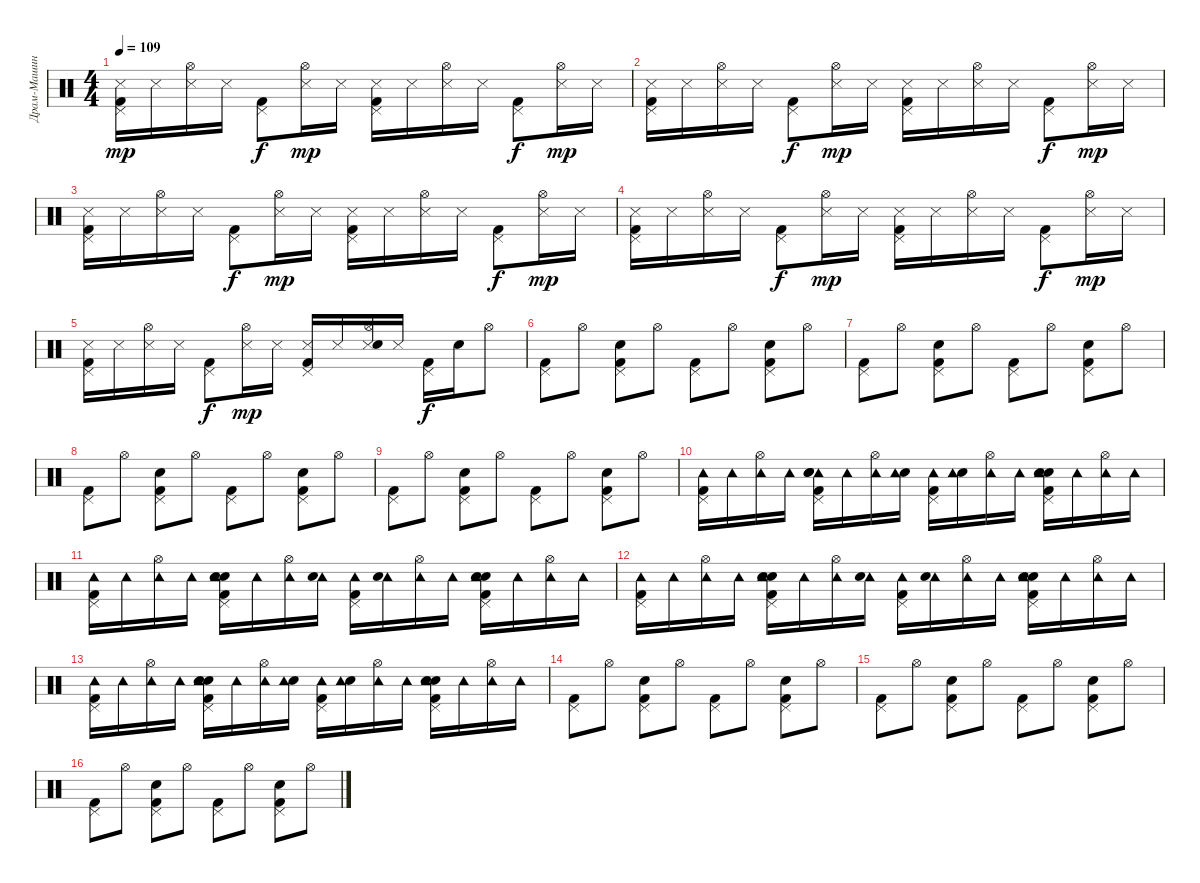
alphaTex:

\track ("Драм-Машина" "Драм-Машин") {instrument percussion}
\staff {score}
\articulation defaults
\ts (4 4)
\tempo 109
\clef neutral
\ks c
("Snare (side stick) 3" "Pedal Hi-Hat (hit)" "Kick (hit) 2").16{dy mp} "Snare (side stick) 3".16 ("Hi-Hat (open)" "Snare (side stick) 3").16 "Snare (side stick) 3".16 ("Pedal Hi-Hat (hit)" "Kick (hit) 2").8{dy f} ("Snare (side stick) 3" "Hi-Hat (open)").16{dy mp} "Snare (side stick) 3".16 ("Pedal Hi-Hat (hit)" "Kick (hit) 2" "Snare (side stick) 3").16 "Snare (side stick) 3".16 ("Hi-Hat (open)" "Snare (side stick) 3").16 "Snare (side stick) 3".16 ("Pedal Hi-Hat (hit)" "Kick (hit) 2").8{dy f} ("Snare (side stick) 3" "Hi-Hat (open)").16{dy mp} "Snare (side stick) 3".16 |
("Pedal Hi-Hat (hit)" "Kick (hit) 2" "Snare (side stick) 3").16 "Snare (side stick) 3".16 ("Snare (side stick) 3" "Hi-Hat (open)").16 "Snare (side stick) 3".16 ("Kick (hit) 2" "Pedal Hi-Hat (hit)").8{dy f} ("Snare (side stick) 3" "Hi-Hat (open)").16{dy mp} "Snare (side stick) 3".16 ("Pedal Hi-Hat (hit)" "Snare (side stick) 3" "Kick (hit) 2").16 "Snare (side stick) 3".16 ("Snare (side stick) 3" "Hi-Hat (open)").16 "Snare (side stick) 3".16 ("Pedal Hi-Hat (hit)" "Kick (hit) 2").8{dy f} ("Hi-Hat (open)" "Snare (side stick) 3").16{dy mp} "Snare (side stick) 3".16 |
("Kick (hit) 2" "Pedal Hi-Hat (hit)" "Snare (side stick) 3").16 "Snare (side stick) 3".16 ("Hi-Hat (open)" "Snare (side stick) 3").16 "Snare (side stick) 3".16 ("Kick (hit) 2" "Pedal Hi-Hat (hit)").8{dy f} ("Hi-Hat (open)" "Snare (side stick) 3").16{dy mp} "Snare (side stick) 3".16 ("Pedal Hi-Hat (hit)" "Snare (side stick) 3" "Kick (hit) 2").16 "Snare (side stick) 3".16 ("Snare (side stick) 3" "Hi-Hat (open)").16 "Snare (side stick) 3".16 ("Kick (hit) 2" "Pedal Hi-Hat (hit)").8{dy f} ("Snare (side stick) 3" "Hi-Hat (open)").16{dy mp} "Snare (side stick) 3".16 |
("Pedal Hi-Hat (hit)" "Kick (hit) 2" "Snare (side stick) 3").16 "Snare (side stick) 3".16 ("Snare (side stick) 3" "Hi-Hat (open)").16 "Snare (side stick) 3".16 ("Pedal Hi-Hat (hit)" "Kick (hit) 2").8{dy f} ("Hi-Hat (open)" "Snare (side stick) 3").16{dy mp} "Snare (side stick) 3".16 ("Kick (hit) 2" "Pedal Hi-Hat (hit)" "Snare (side stick) 3").16 "Snare (side stick) 3".16 ("Hi-Hat (open)" "Snare (side stick) 3").16 "Snare (side stick) 3".16 ("Kick (hit) 2" "Pedal Hi-Hat (hit)").8{dy f} ("Hi-Hat (open)" "Snare (side stick) 3").16{dy mp} "Snare (side stick) 3".16 |
("Snare (side stick) 3" "Pedal Hi-Hat (hit)" "Kick (hit) 2").16 "Snare (side stick) 3".16 ("Hi-Hat (open)" "Snare (side stick) 3").16 "Snare (side stick) 3".16 ("Pedal Hi-Hat (hit)" "Kick (hit) 2").8{dy f} ("Snare (side stick) 3" "Hi-Hat (open)").16{dy mp} "Snare (side stick) 3".16 ("Kick (hit) 2" "Pedal Hi-Hat (hit)" "Snare (side stick) 3").16 "Snare (side stick) 3".16 ("Snare (side stick) 3" "Snare (hit) 2" "Hi-Hat (open)").16 "Snare (side stick) 3".16 ("Kick (hit) 2" "Pedal Hi-Hat (hit)").16{dy f} "Snare (hit) 2".16 "Hi-Hat (open)".8 |
("Kick (hit) 2" "Pedal Hi-Hat (hit)").8 "Hi-Hat (open)".8 ("Snare (hit) 2" "Pedal Hi-Hat (hit)" "Kick (hit) 2").8 "Hi-Hat (open)".8 ("Kick (hit) 2" "Pedal Hi-Hat (hit)").8 "Hi-Hat (open)".8 ("Kick (hit) 2" "Pedal Hi-Hat (hit)" "Snare (hit) 2").8 "Hi-Hat (open)".8 |
("Kick (hit) 2" "Pedal Hi-Hat (hit)").8 "Hi-Hat (open)".8 ("Kick (hit) 2" "Snare (hit) 2" "Pedal Hi-Hat (hit)").8 "Hi-Hat (open)".8 ("Kick (hit) 2" "Pedal Hi-Hat (hit)").8 "Hi-Hat (open)".8 ("Kick (hit) 2" "Pedal Hi-Hat (hit)" "Snare (hit) 2").8 "Hi-Hat (open)".8 |
("Pedal Hi-Hat (hit)" "Kick (hit) 2").8 "Hi-Hat (open)".8 ("Snare (hit) 2" "Kick (hit) 2" "Pedal Hi-Hat (hit)").8 "Hi-Hat (open)".8 ("Kick (hit) 2" "Pedal Hi-Hat (hit)").8 "Hi-Hat (open)".8 ("Snare (hit) 2" "Pedal Hi-Hat (hit)" "Kick (hit) 2").8 "Hi-Hat (open)".8 |
("Kick (hit) 2" "Pedal Hi-Hat (hit)").8 "Hi-Hat (open)".8 ("Kick (hit) 2" "Pedal Hi-Hat (hit)" "Snare (hit) 2").8 "Hi-Hat (open)".8 ("Kick (hit) 2" "Pedal Hi-Hat (hit)").8 "Hi-Hat (open)".8 ("Snare (hit) 2" "Kick (hit) 2" "Pedal Hi-Hat (hit)").8 "Hi-Hat (open)".8 |
("Kick (hit) 2" "Pedal Hi-Hat (hit)" "Tambourine (hit)").16 "Tambourine (hit)".16 ("Tambourine (hit)" "Hi-Hat (open)").16 "Tambourine (hit)".16 ("Tambourine (hit)" "Pedal Hi-Hat (hit)" "Kick (hit) 2" "Snare (hit) 2" "Electric Snare (hit)").16 "Tambourine (hit)".16 ("Tambourine (hit)" "Hi-Hat (open)").16 ("Electric Snare (hit)" "Tambourine (hit)").16 ("Kick (hit) 2" "Tambourine (hit)" "Pedal Hi-Hat (hit)").16 ("Electric Snare (hit)" "Tambourine (hit)").16 ("Hi-Hat (open)" "Tambourine (hit)").16 "Tambourine (hit)".16 ("Electric Snare (hit)" "Kick (hit) 2" "Tambourine (hit)" "Snare (hit) 2" "Pedal Hi-Hat (hit)").16 "Tambourine (hit)".16 ("Hi-Hat (open)" "Tambourine (hit)").16 "Tambourine (hit)".16 |
("Tambourine (hit)" "Kick (hit) 2" "Pedal Hi-Hat (hit)").16 "Tambourine (hit)".16 ("Tambourine (hit)" "Hi-Hat (open)").16 "Tambourine (hit)".16 ("Kick (hit) 2" "Snare (hit) 2" "Pedal Hi-Hat (hit)" "Electric Snare (hit)" "Tambourine (hit)").16 "Tambourine (hit)".16 ("Hi-Hat (open)" "Tambourine (hit)").16 ("Tambourine (hit)" "Electric Snare (hit)").16 ("Pedal Hi-Hat (hit)" "Tambourine (hit)" "Kick (hit) 2").16 ("Tambourine (hit)" "Electric Snare (hit)").16 ("Tambourine (hit)" "Hi-Hat (open)").16 "Tambourine (hit)".16 ("Pedal Hi-Hat (hit)" "Electric Snare (hit)" "Kick (hit) 2" "Tambourine (hit)" "Snare (hit) 2").16 "Tambourine (hit)".16 ("Hi-Hat (open)" "Tambourine (hit)").16 "Tambourine (hit)".16 |
("Tambourine (hit)" "Pedal Hi-Hat (hit)" "Kick (hit) 2").16 "Tambourine (hit)".16 ("Tambourine (hit)" "Hi-Hat (open)").16 "Tambourine (hit)".16 ("Snare (hit) 2" "Tambourine (hit)" "Pedal Hi-Hat (hit)" "Electric Snare (hit)" "Kick (hit) 2").16 "Tambourine (hit)".16 ("Tambourine (hit)" "Hi-Hat (open)").16 ("Tambourine (hit)" "Electric Snare (hit)").16 ("Kick (hit) 2" "Pedal Hi-Hat (hit)" "Tambourine (hit)").16 ("Tambourine (hit)" "Electric Snare (hit)").16 ("Hi-Hat (open)" "Tambourine (hit)").16 "Tambourine (hit)".16 ("Snare (hit) 2" "Tambourine (hit)" "Kick (hit) 2" "Electric Snare (hit)" "Pedal Hi-Hat (hit)").16 "Tambourine (hit)".16 ("Tambourine (hit)" "Hi-Hat (open)").16 "Tambourine (hit)".16 |
("Tambourine (hit)" "Kick (hit) 2" "Pedal Hi-Hat (hit)").16 "Tambourine (hit)".16 ("Hi-Hat (open)" "Tambourine (hit)").16 "Tambourine (hit)".16 ("Electric Snare (hit)" "Pedal Hi-Hat (hit)" "Tambourine (hit)" "Kick (hit) 2" "Snare (hit) 2").16 "Tambourine (hit)".16 ("Hi-Hat (open)" "Tambourine (hit)").16 ("Electric Snare (hit)" "Tambourine (hit)").16 ("Tambourine (hit)" "Kick (hit) 2" "Pedal Hi-Hat (hit)").16 ("Electric Snare (hit)" "Tambourine (hit)").16 ("Tambourine (hit)" "Hi-Hat (open)").16 "Tambourine (hit)".16 ("Snare (hit) 2" "Electric Snare (hit)" "Kick (hit) 2" "Tambourine (hit)" "Pedal Hi-Hat (hit)").16 "Tambourine (hit)".16 ("Tambourine (hit)" "Hi-Hat (open)").16 "Tambourine (hit)".16 |
("Kick (hit) 2" "Pedal Hi-Hat (hit)").8 "Hi-Hat (open)".8 ("Pedal Hi-Hat (hit)" "Kick (hit) 2" "Snare (hit) 2").8 "Hi-Hat (open)".8 ("Pedal Hi-Hat (hit)" "Kick (hit) 2").8 "Hi-Hat (open)".8 ("Pedal Hi-Hat (hit)" "Kick (hit) 2" "Snare (hit) 2").8 "Hi-Hat (open)".8 |
("Kick (hit) 2" "Pedal Hi-Hat (hit)").8 "Hi-Hat (open)".8 ("Pedal Hi-Hat (hit)" "Snare (hit) 2" "Kick (hit) 2").8 "Hi-Hat (open)".8 ("Pedal Hi-Hat (hit)" "Kick (hit) 2").8 "Hi-Hat (open)".8 ("Snare (hit) 2" "Kick (hit) 2" "Pedal Hi-Hat (hit)").8 "Hi-Hat (open)".8 |
("Kick (hit) 2" "Pedal Hi-Hat (hit)").8 "Hi-Hat (open)".8 ("Kick (hit) 2" "Snare (hit) 2" "Pedal Hi-Hat (hit)").8 "Hi-Hat (open)".8 ("Kick (hit) 2" "Pedal Hi-Hat (hit)").8 "Hi-Hat (open)".8 ("Pedal Hi-Hat (hit)" "Snare (hit) 2" "Kick (hit) 2").8 "Hi-Hat (open)".8
